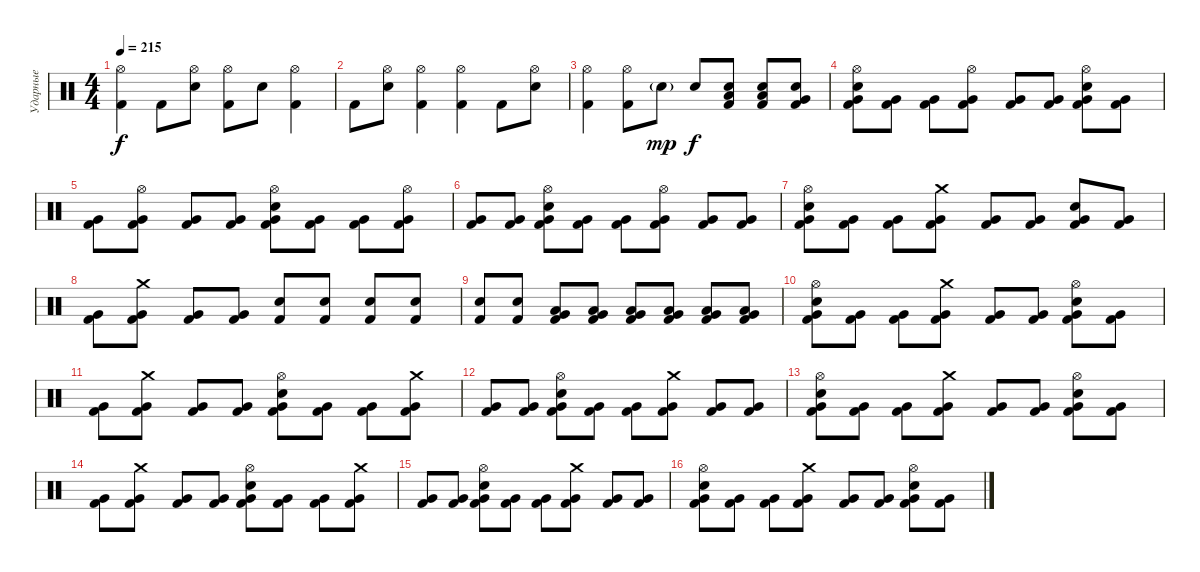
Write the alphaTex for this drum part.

\track ("Ударные" "Ударные") {instrument percussion}
\staff {score}
\articulation defaults
\ts (4 4)
\tempo 215
\clef neutral
\ks c
("Hi-Hat (open)" "Kick (hit) 2").4{dy f} "Kick (hit) 2".8 ("Hi-Hat (open)" "Snare (hit) 2").8 ("Hi-Hat (open)" "Kick (hit) 2").8 "Snare (hit) 2".8 ("Hi-Hat (open)" "Kick (hit) 2").4 |
"Kick (hit) 2".8 ("Hi-Hat (open)" "Snare (hit) 2").8 ("Hi-Hat (open)" "Kick (hit) 2").4 ("Hi-Hat (open)" "Kick (hit) 2").4 "Kick (hit) 2".8 ("Hi-Hat (open)" "Snare (hit) 2").8 |
("Hi-Hat (open)" "Kick (hit) 2").4 ("Hi-Hat (open)" "Kick (hit) 2").8 "Snare (hit) 2"{g}.8{dy mp} "Snare (hit) 2".8{dy f} ("Low Floor Tom (hit)" "Snare (hit) 2" "Kick (hit) 2").8 ("Low Floor Tom (hit)" "Snare (hit) 2" "Kick (hit) 2").8 ("Very Low Tom (hit)" "Snare (hit) 2" "Kick (hit) 2").8 |
("Hi-Hat (open)" "Snare (hit) 2" "Very Low Tom (hit)" "Kick (hit) 2").8 ("Very Low Tom (hit)" "Kick (hit) 2").8 ("Very Low Tom (hit)" "Kick (hit) 2").8 ("Hi-Hat (open)" "Very Low Tom (hit)" "Kick (hit) 2").8 ("Very Low Tom (hit)" "Kick (hit) 2").8 ("Very Low Tom (hit)" "Kick (hit) 2").8 ("Hi-Hat (open)" "Snare (hit) 2" "Very Low Tom (hit)" "Kick (hit) 2").8 ("Very Low Tom (hit)" "Kick (hit) 2").8 |
("Very Low Tom (hit)" "Kick (hit) 2").8 ("Hi-Hat (open)" "Very Low Tom (hit)" "Kick (hit) 2").8 ("Very Low Tom (hit)" "Kick (hit) 2").8 ("Very Low Tom (hit)" "Kick (hit) 2").8 ("Hi-Hat (open)" "Snare (hit) 2" "Very Low Tom (hit)" "Kick (hit) 2").8 ("Very Low Tom (hit)" "Kick (hit) 2").8 ("Very Low Tom (hit)" "Kick (hit) 2").8 ("Hi-Hat (open)" "Very Low Tom (hit)" "Kick (hit) 2").8 |
("Very Low Tom (hit)" "Kick (hit) 2").8 ("Very Low Tom (hit)" "Kick (hit) 2").8 ("Hi-Hat (open)" "Snare (hit) 2" "Very Low Tom (hit)" "Kick (hit) 2").8 ("Very Low Tom (hit)" "Kick (hit) 2").8 ("Very Low Tom (hit)" "Kick (hit) 2").8 ("Hi-Hat (open)" "Very Low Tom (hit)" "Kick (hit) 2").8 ("Very Low Tom (hit)" "Kick (hit) 2").8 ("Very Low Tom (hit)" "Kick (hit) 2").8 |
("Hi-Hat (open)" "Snare (hit) 2" "Very Low Tom (hit)" "Kick (hit) 2").8 ("Very Low Tom (hit)" "Kick (hit) 2").8 ("Very Low Tom (hit)" "Kick (hit) 2").8 ("Crash medium (hit)" "Very Low Tom (hit)" "Kick (hit) 2").8 ("Very Low Tom (hit)" "Kick (hit) 2").8 ("Very Low Tom (hit)" "Kick (hit) 2").8 ("Snare (hit) 2" "Very Low Tom (hit)" "Kick (hit) 2").8 ("Very Low Tom (hit)" "Kick (hit) 2").8 |
("Very Low Tom (hit)" "Kick (hit) 2").8 ("Crash medium (hit)" "Very Low Tom (hit)" "Kick (hit) 2").8 ("Very Low Tom (hit)" "Kick (hit) 2").8 ("Very Low Tom (hit)" "Kick (hit) 2").8 ("Snare (hit) 2" "Kick (hit) 2").8 ("Snare (hit) 2" "Kick (hit) 2").8 ("Snare (hit) 2" "Kick (hit) 2").8 ("Snare (hit) 2" "Kick (hit) 2").8 |
("Snare (hit) 2" "Kick (hit) 2").8 ("Snare (hit) 2" "Kick (hit) 2").8 ("Low Tom (hit)" "Very Low Tom (hit)" "Kick (hit) 2").8 ("Low Tom (hit)" "Very Low Tom (hit)" "Kick (hit) 2").8 ("Low Tom (hit)" "Very Low Tom (hit)" "Kick (hit) 2").8 ("Very Low Tom (hit)" "Low Floor Tom (hit)" "Kick (hit) 2").8 ("Very Low Tom (hit)" "Low Floor Tom (hit)" "Kick (hit) 2").8 ("Very Low Tom (hit)" "Low Floor Tom (hit)" "Kick (hit) 2").8 |
("Hi-Hat (open)" "Snare (hit) 2" "Very Low Tom (hit)" "Kick (hit) 2").8 ("Very Low Tom (hit)" "Kick (hit) 2").8 ("Very Low Tom (hit)" "Kick (hit) 2").8 ("Crash medium (hit)" "Very Low Tom (hit)" "Kick (hit) 2").8 ("Very Low Tom (hit)" "Kick (hit) 2").8 ("Very Low Tom (hit)" "Kick (hit) 2").8 ("Hi-Hat (open)" "Snare (hit) 2" "Very Low Tom (hit)" "Kick (hit) 2").8 ("Very Low Tom (hit)" "Kick (hit) 2").8 |
("Very Low Tom (hit)" "Kick (hit) 2").8 ("Crash medium (hit)" "Very Low Tom (hit)" "Kick (hit) 2").8 ("Very Low Tom (hit)" "Kick (hit) 2").8 ("Very Low Tom (hit)" "Kick (hit) 2").8 ("Hi-Hat (open)" "Snare (hit) 2" "Very Low Tom (hit)" "Kick (hit) 2").8 ("Very Low Tom (hit)" "Kick (hit) 2").8 ("Very Low Tom (hit)" "Kick (hit) 2").8 ("Crash medium (hit)" "Very Low Tom (hit)" "Kick (hit) 2").8 |
("Very Low Tom (hit)" "Kick (hit) 2").8 ("Very Low Tom (hit)" "Kick (hit) 2").8 ("Hi-Hat (open)" "Snare (hit) 2" "Very Low Tom (hit)" "Kick (hit) 2").8 ("Very Low Tom (hit)" "Kick (hit) 2").8 ("Very Low Tom (hit)" "Kick (hit) 2").8 ("Crash medium (hit)" "Very Low Tom (hit)" "Kick (hit) 2").8 ("Very Low Tom (hit)" "Kick (hit) 2").8 ("Very Low Tom (hit)" "Kick (hit) 2").8 |
("Hi-Hat (open)" "Snare (hit) 2" "Very Low Tom (hit)" "Kick (hit) 2").8 ("Very Low Tom (hit)" "Kick (hit) 2").8 ("Very Low Tom (hit)" "Kick (hit) 2").8 ("Crash medium (hit)" "Very Low Tom (hit)" "Kick (hit) 2").8 ("Very Low Tom (hit)" "Kick (hit) 2").8 ("Very Low Tom (hit)" "Kick (hit) 2").8 ("Hi-Hat (open)" "Snare (hit) 2" "Very Low Tom (hit)" "Kick (hit) 2").8 ("Very Low Tom (hit)" "Kick (hit) 2").8 |
("Very Low Tom (hit)" "Kick (hit) 2").8 ("Crash medium (hit)" "Very Low Tom (hit)" "Kick (hit) 2").8 ("Very Low Tom (hit)" "Kick (hit) 2").8 ("Very Low Tom (hit)" "Kick (hit) 2").8 ("Hi-Hat (open)" "Snare (hit) 2" "Very Low Tom (hit)" "Kick (hit) 2").8 ("Very Low Tom (hit)" "Kick (hit) 2").8 ("Very Low Tom (hit)" "Kick (hit) 2").8 ("Crash medium (hit)" "Very Low Tom (hit)" "Kick (hit) 2").8 |
("Very Low Tom (hit)" "Kick (hit) 2").8 ("Very Low Tom (hit)" "Kick (hit) 2").8 ("Hi-Hat (open)" "Snare (hit) 2" "Very Low Tom (hit)" "Kick (hit) 2").8 ("Very Low Tom (hit)" "Kick (hit) 2").8 ("Very Low Tom (hit)" "Kick (hit) 2").8 ("Crash medium (hit)" "Very Low Tom (hit)" "Kick (hit) 2").8 ("Very Low Tom (hit)" "Kick (hit) 2").8 ("Very Low Tom (hit)" "Kick (hit) 2").8 |
("Hi-Hat (open)" "Snare (hit) 2" "Very Low Tom (hit)" "Kick (hit) 2").8 ("Very Low Tom (hit)" "Kick (hit) 2").8 ("Very Low Tom (hit)" "Kick (hit) 2").8 ("Crash medium (hit)" "Very Low Tom (hit)" "Kick (hit) 2").8 ("Very Low Tom (hit)" "Kick (hit) 2").8 ("Very Low Tom (hit)" "Kick (hit) 2").8 ("Hi-Hat (open)" "Snare (hit) 2" "Very Low Tom (hit)" "Kick (hit) 2").8 ("Very Low Tom (hit)" "Kick (hit) 2").8
